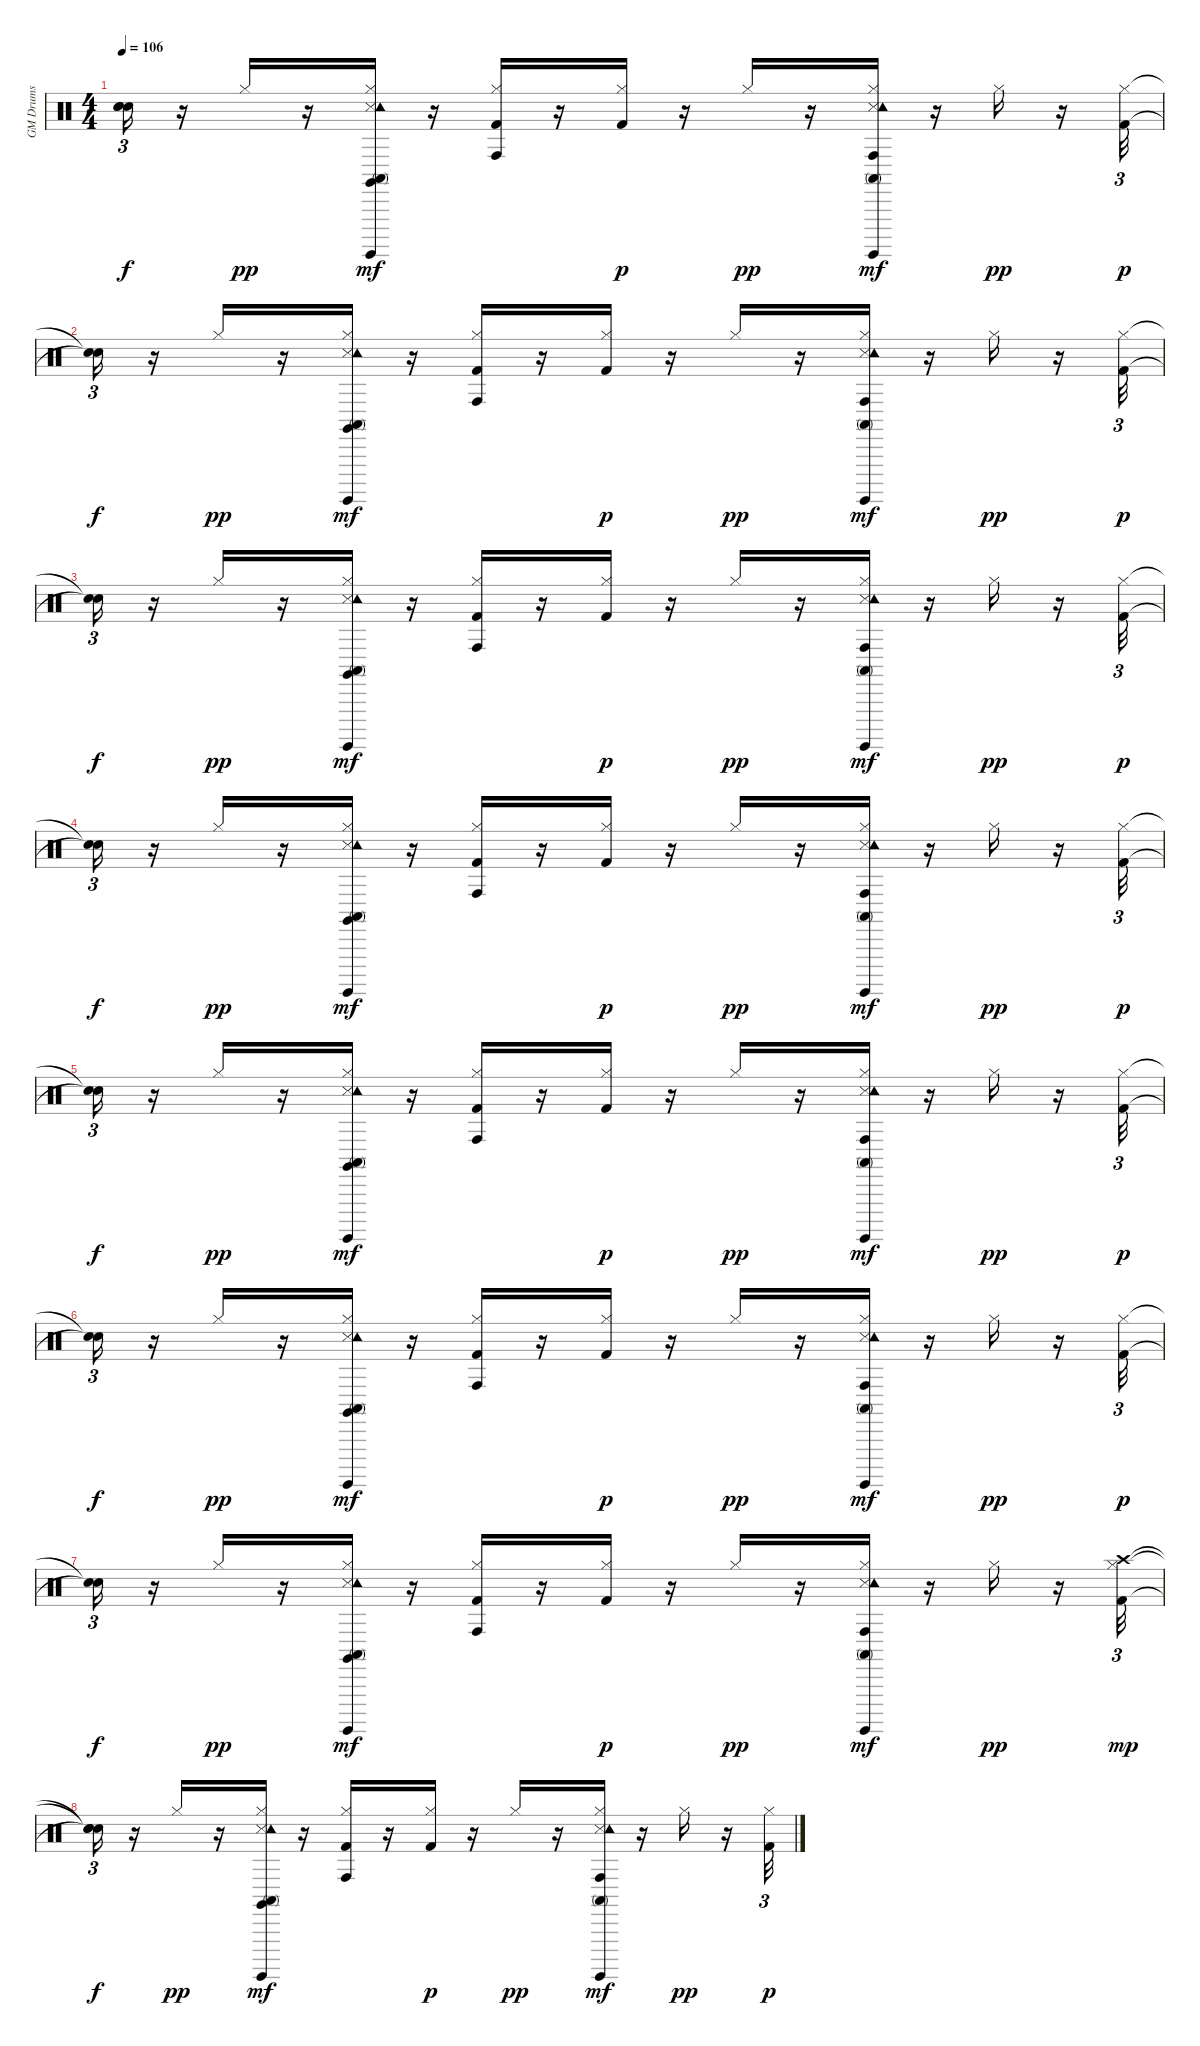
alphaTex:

\track ("GM Drums" "GM Drums") {instrument percussion}
\staff {score}
\articulation defaults
\ts (4 4)
\tempo 106
\clef neutral
\ks c
("Snare (hit)"{t} "Snare (hit)"{t} "Snare (hit)"{t}).16{tu (3 2) dy f} r.16 "Hi-Hat (closed)".16{dy pp} r.16 ("Snare (side stick) 3" "Hi-Hat (closed)" "Tambourine (hit)" "Conga high (mute)" "Claves (hit)" "Surdo (hit)").16{dy mf} r.16 ("Kick (hit) 2" "Hi-Hat (closed)" "Conga high (hit)").16 r.16 ("Kick (hit) 2" "Hi-Hat (closed)").16{dy p} r.16 "Hi-Hat (closed)".16{dy pp} r.16 ("Snare (side stick) 3" "Hi-Hat (closed)" "Tambourine (hit)" "Conga high (mute)" "Conga high (hit)" "Surdo (hit)").16{dy mf} r.16 "Hi-Hat (closed)".16{dy pp} r.16 ("Kick (hit) 2" "Hi-Hat (closed)").32{tu (3 2) dy p} |
("Snare (hit)"{t} "Snare (hit)"{t}).16{tu (3 2) dy f} r.16 "Hi-Hat (closed)".16{dy pp} r.16 ("Snare (side stick) 3" "Hi-Hat (closed)" "Tambourine (hit)" "Conga high (mute)" "Claves (hit)" "Surdo (hit)").16{dy mf} r.16 ("Kick (hit) 2" "Hi-Hat (closed)" "Conga high (hit)").16 r.16 ("Kick (hit) 2" "Hi-Hat (closed)").16{dy p} r.16 "Hi-Hat (closed)".16{dy pp} r.16 ("Snare (side stick) 3" "Hi-Hat (closed)" "Tambourine (hit)" "Conga high (mute)" "Conga high (hit)" "Surdo (hit)").16{dy mf} r.16 "Hi-Hat (closed)".16{dy pp} r.16 ("Kick (hit) 2" "Hi-Hat (closed)").32{tu (3 2) dy p} |
("Snare (hit)"{t} "Snare (hit)"{t}).16{tu (3 2) dy f} r.16 "Hi-Hat (closed)".16{dy pp} r.16 ("Snare (side stick) 3" "Hi-Hat (closed)" "Tambourine (hit)" "Conga high (mute)" "Claves (hit)" "Surdo (hit)").16{dy mf} r.16 ("Kick (hit) 2" "Hi-Hat (closed)" "Conga high (hit)").16 r.16 ("Kick (hit) 2" "Hi-Hat (closed)").16{dy p} r.16 "Hi-Hat (closed)".16{dy pp} r.16 ("Snare (side stick) 3" "Hi-Hat (closed)" "Tambourine (hit)" "Conga high (mute)" "Conga high (hit)" "Surdo (hit)").16{dy mf} r.16 "Hi-Hat (closed)".16{dy pp} r.16 ("Kick (hit) 2" "Hi-Hat (closed)").32{tu (3 2) dy p} |
("Snare (hit)"{t} "Snare (hit)"{t}).16{tu (3 2) dy f} r.16 "Hi-Hat (closed)".16{dy pp} r.16 ("Snare (side stick) 3" "Hi-Hat (closed)" "Tambourine (hit)" "Conga high (mute)" "Claves (hit)" "Surdo (hit)").16{dy mf} r.16 ("Kick (hit) 2" "Hi-Hat (closed)" "Conga high (hit)").16 r.16 ("Kick (hit) 2" "Hi-Hat (closed)").16{dy p} r.16 "Hi-Hat (closed)".16{dy pp} r.16 ("Snare (side stick) 3" "Hi-Hat (closed)" "Tambourine (hit)" "Conga high (mute)" "Conga high (hit)" "Surdo (hit)").16{dy mf} r.16 "Hi-Hat (closed)".16{dy pp} r.16 ("Kick (hit) 2" "Hi-Hat (closed)").32{tu (3 2) dy p} |
("Snare (hit)"{t} "Snare (hit)"{t}).16{tu (3 2) dy f} r.16 "Hi-Hat (closed)".16{dy pp} r.16 ("Snare (side stick) 3" "Hi-Hat (closed)" "Tambourine (hit)" "Conga high (mute)" "Claves (hit)" "Surdo (hit)").16{dy mf} r.16 ("Kick (hit) 2" "Hi-Hat (closed)" "Conga high (hit)").16 r.16 ("Kick (hit) 2" "Hi-Hat (closed)").16{dy p} r.16 "Hi-Hat (closed)".16{dy pp} r.16 ("Snare (side stick) 3" "Hi-Hat (closed)" "Tambourine (hit)" "Conga high (mute)" "Conga high (hit)" "Surdo (hit)").16{dy mf} r.16 "Hi-Hat (closed)".16{dy pp} r.16 ("Kick (hit) 2" "Hi-Hat (closed)").32{tu (3 2) dy p} |
("Snare (hit)"{t} "Snare (hit)"{t}).16{tu (3 2) dy f} r.16 "Hi-Hat (closed)".16{dy pp} r.16 ("Snare (side stick) 3" "Hi-Hat (closed)" "Tambourine (hit)" "Conga high (mute)" "Claves (hit)" "Surdo (hit)").16{dy mf} r.16 ("Kick (hit) 2" "Hi-Hat (closed)" "Conga high (hit)").16 r.16 ("Kick (hit) 2" "Hi-Hat (closed)").16{dy p} r.16 "Hi-Hat (closed)".16{dy pp} r.16 ("Snare (side stick) 3" "Hi-Hat (closed)" "Tambourine (hit)" "Conga high (mute)" "Conga high (hit)" "Surdo (hit)").16{dy mf} r.16 "Hi-Hat (closed)".16{dy pp} r.16 ("Kick (hit) 2" "Hi-Hat (closed)").32{tu (3 2) dy p} |
("Snare (hit)"{t} "Snare (hit)"{t}).16{tu (3 2) dy f} r.16 "Hi-Hat (closed)".16{dy pp} r.16 ("Snare (side stick) 3" "Hi-Hat (closed)" "Tambourine (hit)" "Conga high (mute)" "Claves (hit)" "Surdo (hit)").16{dy mf} r.16 ("Kick (hit) 2" "Hi-Hat (closed)" "Conga high (hit)").16 r.16 ("Kick (hit) 2" "Hi-Hat (closed)").16{dy p} r.16 "Hi-Hat (closed)".16{dy pp} r.16 ("Snare (side stick) 3" "Hi-Hat (closed)" "Tambourine (hit)" "Conga high (mute)" "Conga high (hit)" "Surdo (hit)").16{dy mf} r.16 "Hi-Hat (closed)".16{dy pp} r.16 ("Kick (hit) 2" "Hi-Hat (closed)" "Crash high (hit)").32{tu (3 2) dy mp} |
("Snare (hit)"{t} "Snare (hit)"{t} "Snare (hit)"{t}).16{tu (3 2) dy f} r.16 "Hi-Hat (closed)".16{dy pp} r.16 ("Snare (side stick) 3" "Hi-Hat (closed)" "Tambourine (hit)" "Conga high (mute)" "Claves (hit)" "Surdo (hit)").16{dy mf} r.16 ("Kick (hit) 2" "Hi-Hat (closed)" "Conga high (hit)").16 r.16 ("Kick (hit) 2" "Hi-Hat (closed)").16{dy p} r.16 "Hi-Hat (closed)".16{dy pp} r.16 ("Snare (side stick) 3" "Hi-Hat (closed)" "Tambourine (hit)" "Conga high (mute)" "Conga high (hit)" "Surdo (hit)").16{dy mf} r.16 "Hi-Hat (closed)".16{dy pp} r.16 ("Kick (hit) 2" "Hi-Hat (closed)").32{tu (3 2) dy p}
